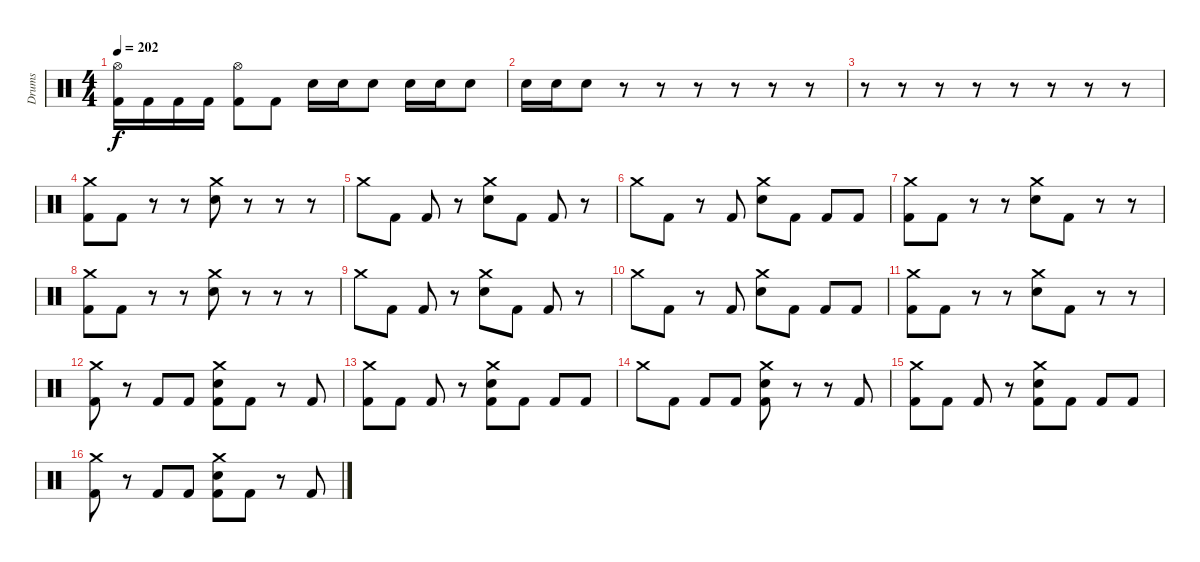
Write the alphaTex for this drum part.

\track ("Drums" "Drums") {instrument percussion}
\staff {score}
\articulation defaults
\ts (4 4)
\tempo 202
\clef neutral
\ks c
("Hi-Hat (open)" "Kick (hit) 2").16{dy f} "Kick (hit) 2".16 "Kick (hit) 2".16 "Kick (hit) 2".16 ("Hi-Hat (open)" "Kick (hit) 2").8 "Kick (hit) 2".8 "Electric Snare (hit)".16 "Electric Snare (hit)".16 "Electric Snare (hit)".8 "Electric Snare (hit)".16 "Electric Snare (hit)".16 "Electric Snare (hit)".8 |
"Electric Snare (hit)".16 "Electric Snare (hit)".16 "Electric Snare (hit)".8 r.8 r.8 r.8 r.8 r.8 r.8 |
r.8 r.8 r.8 r.8 r.8 r.8 r.8 r.8 |
("Crash medium (hit)" "Kick (hit) 2").8 "Kick (hit) 2".8 r.8 r.8 ("Crash medium (hit)" "Electric Snare (hit)").8 r.8 r.8 r.8 |
"Crash medium (hit)".8 "Kick (hit) 2".8 "Kick (hit) 2".8 r.8 ("Crash medium (hit)" "Electric Snare (hit)").8 "Kick (hit) 2".8 "Kick (hit) 2".8 r.8 |
"Crash medium (hit)".8 "Kick (hit) 2".8 r.8 "Kick (hit) 2".8 ("Crash medium (hit)" "Electric Snare (hit)").8 "Kick (hit) 2".8 "Kick (hit) 2".8 "Kick (hit) 2".8 |
("Crash medium (hit)" "Kick (hit) 2").8 "Kick (hit) 2".8 r.8 r.8 ("Crash medium (hit)" "Electric Snare (hit)").8 "Kick (hit) 2".8 r.8 r.8 |
("Crash medium (hit)" "Kick (hit) 2").8 "Kick (hit) 2".8 r.8 r.8 ("Crash medium (hit)" "Electric Snare (hit)").8 r.8 r.8 r.8 |
"Crash medium (hit)".8 "Kick (hit) 2".8 "Kick (hit) 2".8 r.8 ("Crash medium (hit)" "Electric Snare (hit)").8 "Kick (hit) 2".8 "Kick (hit) 2".8 r.8 |
"Crash medium (hit)".8 "Kick (hit) 2".8 r.8 "Kick (hit) 2".8 ("Crash medium (hit)" "Electric Snare (hit)").8 "Kick (hit) 2".8 "Kick (hit) 2".8 "Kick (hit) 2".8 |
("Crash medium (hit)" "Kick (hit) 2").8 "Kick (hit) 2".8 r.8 r.8 ("Crash medium (hit)" "Electric Snare (hit)").8 "Kick (hit) 2".8 r.8 r.8 |
("Crash medium (hit)" "Kick (hit) 2").8 r.8 "Kick (hit) 2".8 "Kick (hit) 2".8 ("Crash medium (hit)" "Electric Snare (hit)" "Kick (hit) 2").8 "Kick (hit) 2".8 r.8 "Kick (hit) 2".8 |
("Crash medium (hit)" "Kick (hit) 2").8 "Kick (hit) 2".8 "Kick (hit) 2".8 r.8 ("Crash medium (hit)" "Electric Snare (hit)" "Kick (hit) 2").8 "Kick (hit) 2".8 "Kick (hit) 2".8 "Kick (hit) 2".8 |
"Crash medium (hit)".8 "Kick (hit) 2".8 "Kick (hit) 2".8 "Kick (hit) 2".8 ("Crash medium (hit)" "Electric Snare (hit)" "Kick (hit) 2").8 r.8 r.8 "Kick (hit) 2".8 |
("Crash medium (hit)" "Kick (hit) 2").8 "Kick (hit) 2".8 "Kick (hit) 2".8 r.8 ("Crash medium (hit)" "Electric Snare (hit)" "Kick (hit) 2").8 "Kick (hit) 2".8 "Kick (hit) 2".8 "Kick (hit) 2".8 |
("Crash medium (hit)" "Kick (hit) 2").8 r.8 "Kick (hit) 2".8 "Kick (hit) 2".8 ("Crash medium (hit)" "Electric Snare (hit)" "Kick (hit) 2").8 "Kick (hit) 2".8 r.8 "Kick (hit) 2".8
